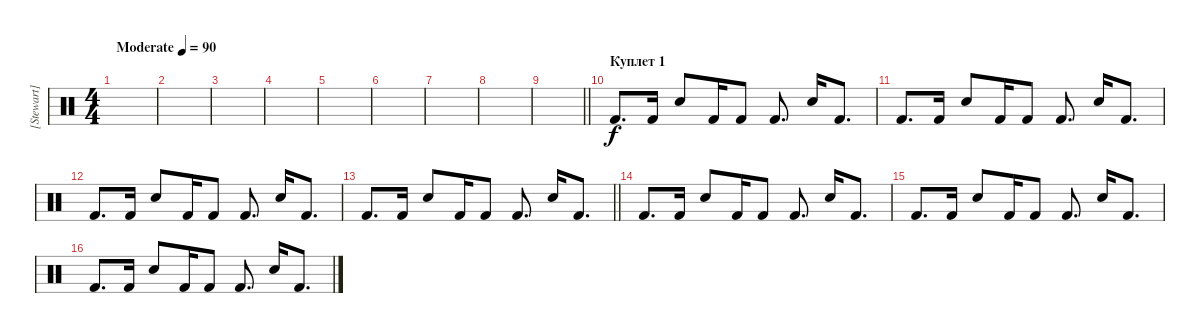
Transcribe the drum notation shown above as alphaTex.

\track ("[Stewart] (drums)" "[Stewart] ") {instrument percussion}
\staff {score}
\articulation defaults
\ts (4 4)
\tempo (90 "Moderate")
\clef neutral
\ks c
|
|
|
|
|
|
|
|
\barLineRight lightlight
|
\section ("" "Куплет 1")
"Kick (hit) 2".8{d} "Kick (hit) 2".16 "Snare (hit) 2".8 "Kick (hit) 2".16 "Kick (hit) 2".8 "Kick (hit) 2".8{d} "Snare (hit) 2".16 "Kick (hit) 2".8{d} |
"Kick (hit) 2".8{d} "Kick (hit) 2".16 "Snare (hit) 2".8 "Kick (hit) 2".16 "Kick (hit) 2".8 "Kick (hit) 2".8{d} "Snare (hit) 2".16 "Kick (hit) 2".8{d} |
"Kick (hit) 2".8{d} "Kick (hit) 2".16 "Snare (hit) 2".8 "Kick (hit) 2".16 "Kick (hit) 2".8 "Kick (hit) 2".8{d} "Snare (hit) 2".16 "Kick (hit) 2".8{d} |
\barLineRight lightlight "Kick (hit) 2".8{d} "Kick (hit) 2".16 "Snare (hit) 2".8 "Kick (hit) 2".16 "Kick (hit) 2".8 "Kick (hit) 2".8{d} "Snare (hit) 2".16 "Kick (hit) 2".8{d}
|
"Kick (hit) 2".8{d} "Kick (hit) 2".16 "Snare (hit) 2".8 "Kick (hit) 2".16 "Kick (hit) 2".8 "Kick (hit) 2".8{d} "Snare (hit) 2".16 "Kick (hit) 2".8{d} |
"Kick (hit) 2".8{d} "Kick (hit) 2".16 "Snare (hit) 2".8 "Kick (hit) 2".16 "Kick (hit) 2".8 "Kick (hit) 2".8{d} "Snare (hit) 2".16 "Kick (hit) 2".8{d} |
"Kick (hit) 2".8{d} "Kick (hit) 2".16 "Snare (hit) 2".8 "Kick (hit) 2".16 "Kick (hit) 2".8 "Kick (hit) 2".8{d} "Snare (hit) 2".16 "Kick (hit) 2".8{d}
